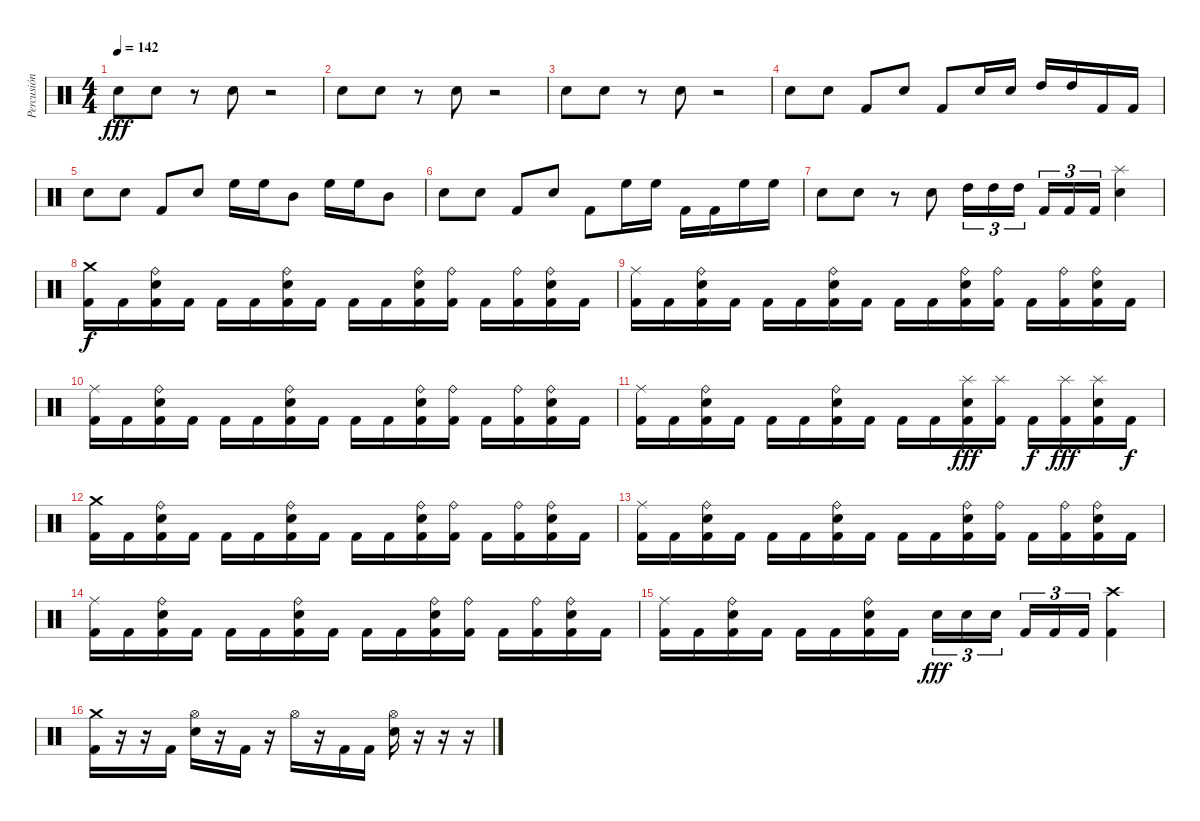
\track ("Percusión" "Percusión") {instrument percussion}
\staff {score}
\articulation defaults
\ts (4 4)
\tempo 142
\clef neutral
\ks c "Electric Snare (hit)".8{dy fff} "Electric Snare (hit)".8
r.8 "Electric Snare (hit)".8 r.2 |
"Electric Snare (hit)".8 "Electric Snare (hit)".8 r.8 "Electric Snare (hit)".8 r.2 |
"Electric Snare (hit)".8 "Electric Snare (hit)".8 r.8 "Electric Snare (hit)".8 r.2 |
"Electric Snare (hit)".8 "Electric Snare (hit)".8 "Kick (hit) 2".8 "Electric Snare (hit)".8 "Kick (hit) 2".8 "Electric Snare (hit)".16 "Electric Snare (hit)".16 "High Tom (hit)".16 "High Tom (hit)".16 "Kick (hit) 2".16 "Kick (hit) 2".16 |
"Electric Snare (hit)".8 "Electric Snare (hit)".8 "Kick (hit) 2".8 "Electric Snare (hit)".8 "High Floor Tom (hit)".16 "High Floor Tom (hit)".16 "Mid Tom (hit)".8 "High Floor Tom (hit)".16 "High Floor Tom (hit)".16 "Mid Tom (hit)".8 |
"Electric Snare (hit)".8 "Electric Snare (hit)".8 "Kick (hit) 2".8 "Electric Snare (hit)".8 "Kick (hit) 2".8 "High Floor Tom (hit)".16 "High Floor Tom (hit)".16 "Kick (hit) 2".16 "Kick (hit) 2".16 "High Floor Tom (hit)".16 "High Floor Tom (hit)".16 |
"Electric Snare (hit)".8 "Electric Snare (hit)".8 r.8 "Electric Snare (hit)".8 "High Tom (hit)".16{tu (3 2)} "High Tom (hit)".16{tu (3 2)} "High Tom (hit)".16{tu (3 2) beam splitsecondary} "Kick (hit) 2".16{tu (3 2)} "Kick (hit) 2".16{tu (3 2)} "Kick (hit) 2".16{tu (3 2)} ("Splash (hit)" "Electric Snare (hit)").4 |
("Crash medium (hit)" "Kick (hit) 2").16{dy f} "Kick (hit) 2".16 ("Ride (bell)" "Electric Snare (hit)" "Kick (hit) 2").16 "Kick (hit) 2".16 "Kick (hit) 2".16 "Kick (hit) 2".16 ("Ride (bell)" "Electric Snare (hit)" "Kick (hit) 2").16 "Kick (hit) 2".16 "Kick (hit) 2".16 "Kick (hit) 2".16 ("Ride (bell)" "Electric Snare (hit)" "Kick (hit) 2").16 ("Ride (bell)" "Kick (hit) 2").16 "Kick (hit) 2".16 ("Ride (bell)" "Kick (hit) 2").16 ("Ride (bell)" "Electric Snare (hit)" "Kick (hit) 2").16 "Kick (hit) 2".16 |
("Ride (middle)" "Kick (hit) 2").16 "Kick (hit) 2".16 ("Ride (bell)" "Electric Snare (hit)" "Kick (hit) 2").16 "Kick (hit) 2".16 "Kick (hit) 2".16 "Kick (hit) 2".16 ("Ride (bell)" "Electric Snare (hit)" "Kick (hit) 2").16 "Kick (hit) 2".16 "Kick (hit) 2".16 "Kick (hit) 2".16 ("Ride (bell)" "Electric Snare (hit)" "Kick (hit) 2").16 ("Ride (bell)" "Kick (hit) 2").16 "Kick (hit) 2".16 ("Ride (bell)" "Kick (hit) 2").16 ("Ride (bell)" "Electric Snare (hit)" "Kick (hit) 2").16 "Kick (hit) 2".16 |
("Ride (middle)" "Kick (hit) 2").16 "Kick (hit) 2".16 ("Ride (bell)" "Electric Snare (hit)" "Kick (hit) 2").16 "Kick (hit) 2".16 "Kick (hit) 2".16 "Kick (hit) 2".16 ("Ride (bell)" "Electric Snare (hit)" "Kick (hit) 2").16 "Kick (hit) 2".16 "Kick (hit) 2".16 "Kick (hit) 2".16 ("Ride (bell)" "Electric Snare (hit)" "Kick (hit) 2").16 ("Ride (bell)" "Kick (hit) 2").16 "Kick (hit) 2".16 ("Ride (bell)" "Kick (hit) 2").16 ("Ride (bell)" "Electric Snare (hit)" "Kick (hit) 2").16 "Kick (hit) 2".16 |
("Ride (middle)" "Kick (hit) 2").16 "Kick (hit) 2".16 ("Ride (bell)" "Electric Snare (hit)" "Kick (hit) 2").16 "Kick (hit) 2".16 "Kick (hit) 2".16 "Kick (hit) 2".16 ("Ride (bell)" "Electric Snare (hit)" "Kick (hit) 2").16 "Kick (hit) 2".16 "Kick (hit) 2".16 "Kick (hit) 2".16 ("Splash (hit)" "Electric Snare (hit)" "Kick (hit) 2").16{dy fff} ("Splash (hit)" "Kick (hit) 2").16 "Kick (hit) 2".16{dy f} ("Splash (hit)" "Kick (hit) 2").16{dy fff} ("Splash (hit)" "Electric Snare (hit)" "Kick (hit) 2").16 "Kick (hit) 2".16{dy f} |
("Crash medium (hit)" "Kick (hit) 2").16 "Kick (hit) 2".16 ("Ride (bell)" "Electric Snare (hit)" "Kick (hit) 2").16 "Kick (hit) 2".16 "Kick (hit) 2".16 "Kick (hit) 2".16 ("Ride (bell)" "Electric Snare (hit)" "Kick (hit) 2").16 "Kick (hit) 2".16 "Kick (hit) 2".16 "Kick (hit) 2".16 ("Ride (bell)" "Electric Snare (hit)" "Kick (hit) 2").16 ("Ride (bell)" "Kick (hit) 2").16 "Kick (hit) 2".16 ("Ride (bell)" "Kick (hit) 2").16 ("Ride (bell)" "Electric Snare (hit)" "Kick (hit) 2").16 "Kick (hit) 2".16 |
("Ride (middle)" "Kick (hit) 2").16 "Kick (hit) 2".16 ("Ride (bell)" "Electric Snare (hit)" "Kick (hit) 2").16 "Kick (hit) 2".16 "Kick (hit) 2".16 "Kick (hit) 2".16 ("Ride (bell)" "Electric Snare (hit)" "Kick (hit) 2").16 "Kick (hit) 2".16 "Kick (hit) 2".16 "Kick (hit) 2".16 ("Ride (bell)" "Electric Snare (hit)" "Kick (hit) 2").16 ("Ride (bell)" "Kick (hit) 2").16 "Kick (hit) 2".16 ("Ride (bell)" "Kick (hit) 2").16 ("Ride (bell)" "Electric Snare (hit)" "Kick (hit) 2").16 "Kick (hit) 2".16 |
("Ride (middle)" "Kick (hit) 2").16 "Kick (hit) 2".16 ("Ride (bell)" "Electric Snare (hit)" "Kick (hit) 2").16 "Kick (hit) 2".16 "Kick (hit) 2".16 "Kick (hit) 2".16 ("Ride (bell)" "Electric Snare (hit)" "Kick (hit) 2").16 "Kick (hit) 2".16 "Kick (hit) 2".16 "Kick (hit) 2".16 ("Ride (bell)" "Electric Snare (hit)" "Kick (hit) 2").16 ("Ride (bell)" "Kick (hit) 2").16 "Kick (hit) 2".16 ("Ride (bell)" "Kick (hit) 2").16 ("Ride (bell)" "Electric Snare (hit)" "Kick (hit) 2").16 "Kick (hit) 2".16 |
("Ride (middle)" "Kick (hit) 2").16 "Kick (hit) 2".16 ("Ride (bell)" "Electric Snare (hit)" "Kick (hit) 2").16 "Kick (hit) 2".16 "Kick (hit) 2".16 "Kick (hit) 2".16 ("Ride (bell)" "Electric Snare (hit)" "Kick (hit) 2").16 "Kick (hit) 2".16 "Electric Snare (hit)".16{tu (3 2) dy fff} "Electric Snare (hit)".16{tu (3 2)} "Electric Snare (hit)".16{tu (3 2) beam splitsecondary} "Kick (hit) 2".16{tu (3 2)} "Kick (hit) 2".16{tu (3 2)} "Kick (hit) 2".16{tu (3 2)} ("Crash high (hit)" "Kick (hit) 2").4 |
("Crash medium (hit)" "Kick (hit) 2").16 r.16 r.16 "Kick (hit) 2".16 ("Hi-Hat (open)" "Electric Snare (hit)").16 r.16 "Kick (hit) 2".16 r.16 "Hi-Hat (open)".16 r.16 "Kick (hit) 2".16 "Kick (hit) 2".16 ("Hi-Hat (open)" "Electric Snare (hit)").16 r.16 r.16 r.16
